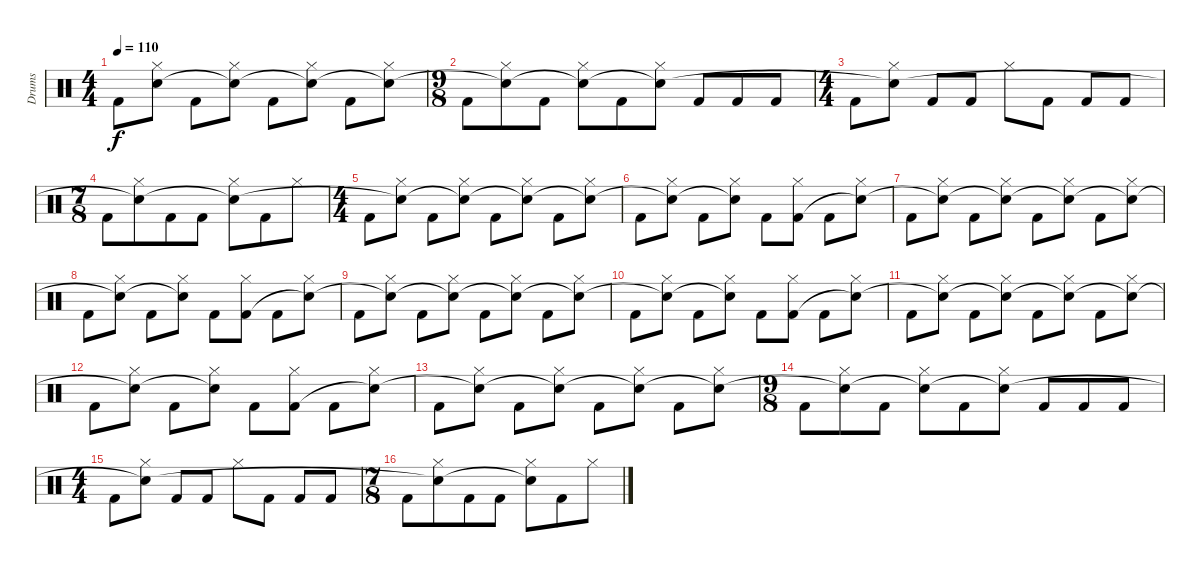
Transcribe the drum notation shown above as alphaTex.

\track ("Drums" "Drums") {instrument percussion}
\staff {score}
\articulation defaults
\ts (4 4)
\tempo 110
\clef neutral
\ks c "Kick (hit) 2".8{dy f}
("Hi-Hat (closed)" "Snare (hit)"{t}).8 "Kick (hit) 2".8 ("Hi-Hat (closed)" "Snare (hit)"{t}).8 "Kick (hit) 2".8 ("Hi-Hat (closed)" "Snare (hit)"{t}).8 "Kick (hit) 2".8 ("Hi-Hat (closed)" "Snare (hit)"{t}).8 |
\ts (9 8)
"Kick (hit) 2".8 ("Hi-Hat (closed)" "Snare (hit)"{t}).8 "Kick (hit) 2".8 ("Hi-Hat (closed)" "Snare (hit)"{t}).8 "Kick (hit) 2".8 ("Hi-Hat (closed)" "Snare (hit)"{t}).8 "Kick (hit) 2".8 "Kick (hit) 2".8 "Kick (hit) 2".8 |
\ts (4 4)
"Kick (hit) 2".8 ("Hi-Hat (closed)" "Snare (hit)"{t}).8 "Kick (hit) 2".8 "Kick (hit) 2".8 "Hi-Hat (closed)".8 "Kick (hit) 2".8 "Kick (hit) 2".8 "Kick (hit) 2".8 |
\ts (7 8)
"Kick (hit) 2".8 ("Hi-Hat (closed)" "Snare (hit)"{t}).8 "Kick (hit) 2".8 "Kick (hit) 2".8 ("Hi-Hat (closed)" "Snare (hit)"{t}).8 "Kick (hit) 2".8 "Hi-Hat (closed)".8 |
\ts (4 4)
"Kick (hit) 2".8 ("Hi-Hat (closed)" "Snare (hit)"{t}).8 "Kick (hit) 2".8 ("Hi-Hat (closed)" "Snare (hit)"{t}).8 "Kick (hit) 2".8 ("Hi-Hat (closed)" "Snare (hit)"{t}).8 "Kick (hit) 2".8 ("Hi-Hat (closed)" "Snare (hit)"{t}).8 |
"Kick (hit) 2".8 ("Hi-Hat (closed)" "Snare (hit)"{t}).8 "Kick (hit) 2".8 ("Hi-Hat (closed)" "Snare (hit)"{t}).8 "Kick (hit) 2".8 ("Hi-Hat (closed)" "Kick (hit) 2").8 "Kick (hit) 2".8 ("Hi-Hat (closed)" "Snare (hit)"{t}).8 |
"Kick (hit) 2".8 ("Hi-Hat (closed)" "Snare (hit)"{t}).8 "Kick (hit) 2".8 ("Hi-Hat (closed)" "Snare (hit)"{t}).8 "Kick (hit) 2".8 ("Hi-Hat (closed)" "Snare (hit)"{t}).8 "Kick (hit) 2".8 ("Hi-Hat (closed)" "Snare (hit)"{t}).8 |
"Kick (hit) 2".8 ("Hi-Hat (closed)" "Snare (hit)"{t}).8 "Kick (hit) 2".8 ("Hi-Hat (closed)" "Snare (hit)"{t}).8 "Kick (hit) 2".8 ("Hi-Hat (closed)" "Kick (hit) 2").8 "Kick (hit) 2".8 ("Hi-Hat (closed)" "Snare (hit)"{t}).8 |
"Kick (hit) 2".8 ("Hi-Hat (closed)" "Snare (hit)"{t}).8 "Kick (hit) 2".8 ("Hi-Hat (closed)" "Snare (hit)"{t}).8 "Kick (hit) 2".8 ("Hi-Hat (closed)" "Snare (hit)"{t}).8 "Kick (hit) 2".8 ("Hi-Hat (closed)" "Snare (hit)"{t}).8 |
"Kick (hit) 2".8 ("Hi-Hat (closed)" "Snare (hit)"{t}).8 "Kick (hit) 2".8 ("Hi-Hat (closed)" "Snare (hit)"{t}).8 "Kick (hit) 2".8 ("Hi-Hat (closed)" "Kick (hit) 2").8 "Kick (hit) 2".8 ("Hi-Hat (closed)" "Snare (hit)"{t}).8 |
"Kick (hit) 2".8 ("Hi-Hat (closed)" "Snare (hit)"{t}).8 "Kick (hit) 2".8 ("Hi-Hat (closed)" "Snare (hit)"{t}).8 "Kick (hit) 2".8 ("Hi-Hat (closed)" "Snare (hit)"{t}).8 "Kick (hit) 2".8 ("Hi-Hat (closed)" "Snare (hit)"{t}).8 |
"Kick (hit) 2".8 ("Hi-Hat (closed)" "Snare (hit)"{t}).8 "Kick (hit) 2".8 ("Hi-Hat (closed)" "Snare (hit)"{t}).8 "Kick (hit) 2".8 ("Hi-Hat (closed)" "Kick (hit) 2").8 "Kick (hit) 2".8 ("Hi-Hat (closed)" "Snare (hit)"{t}).8 |
"Kick (hit) 2".8 ("Hi-Hat (closed)" "Snare (hit)"{t}).8 "Kick (hit) 2".8 ("Hi-Hat (closed)" "Snare (hit)"{t}).8 "Kick (hit) 2".8 ("Hi-Hat (closed)" "Snare (hit)"{t}).8 "Kick (hit) 2".8 ("Hi-Hat (closed)" "Snare (hit)"{t}).8 |
\ts (9 8)
"Kick (hit) 2".8 ("Hi-Hat (closed)" "Snare (hit)"{t}).8 "Kick (hit) 2".8 ("Hi-Hat (closed)" "Snare (hit)"{t}).8 "Kick (hit) 2".8 ("Hi-Hat (closed)" "Snare (hit)"{t}).8 "Kick (hit) 2".8 "Kick (hit) 2".8 "Kick (hit) 2".8 |
\ts (4 4)
"Kick (hit) 2".8 ("Hi-Hat (closed)" "Snare (hit)"{t}).8 "Kick (hit) 2".8 "Kick (hit) 2".8 "Hi-Hat (closed)".8 "Kick (hit) 2".8 "Kick (hit) 2".8 "Kick (hit) 2".8 |
\ts (7 8)
"Kick (hit) 2".8 ("Hi-Hat (closed)" "Snare (hit)"{t}).8 "Kick (hit) 2".8 "Kick (hit) 2".8 ("Hi-Hat (closed)" "Snare (hit)"{t}).8 "Kick (hit) 2".8 "Hi-Hat (closed)".8
